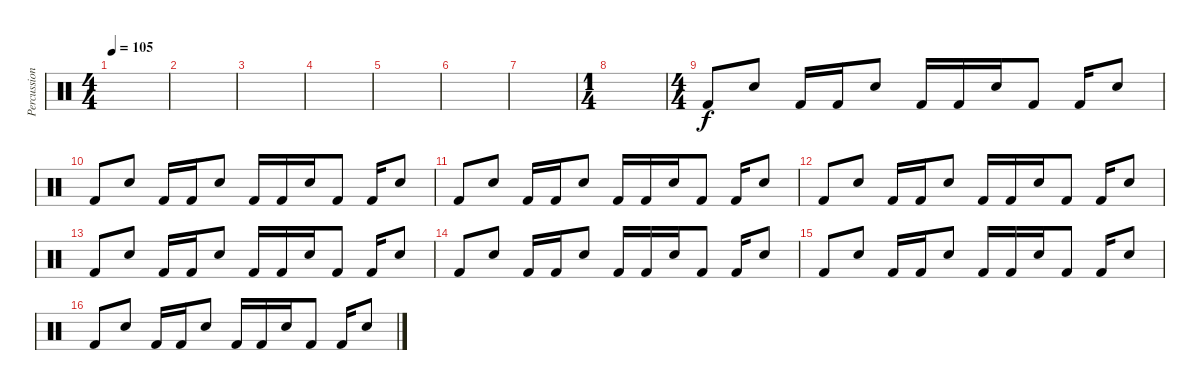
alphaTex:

\track ("Percussions" "Percussion") {instrument percussion}
\staff {score}
\articulation defaults
\ts (4 4)
\tempo 105
\clef neutral
\ks c
|
|
|
|
|
|
|
\ts (1 4)
|
\ts (4 4)
"Kick (hit) 2".8 "Snare (hit) 2".8 "Kick (hit) 2".16 "Kick (hit) 2".16 "Snare (hit) 2".8 "Kick (hit) 2".16 "Kick (hit) 2".16 "Snare (hit) 2".16 "Kick (hit) 2".8 "Kick (hit) 2".16 "Snare (hit) 2".8 |
"Kick (hit) 2".8 "Snare (hit) 2".8 "Kick (hit) 2".16 "Kick (hit) 2".16 "Snare (hit) 2".8 "Kick (hit) 2".16 "Kick (hit) 2".16 "Snare (hit) 2".16 "Kick (hit) 2".8 "Kick (hit) 2".16 "Snare (hit) 2".8 |
"Kick (hit) 2".8 "Snare (hit) 2".8 "Kick (hit) 2".16 "Kick (hit) 2".16 "Snare (hit) 2".8 "Kick (hit) 2".16 "Kick (hit) 2".16 "Snare (hit) 2".16 "Kick (hit) 2".8 "Kick (hit) 2".16 "Snare (hit) 2".8 |
"Kick (hit) 2".8 "Snare (hit) 2".8 "Kick (hit) 2".16 "Kick (hit) 2".16 "Snare (hit) 2".8 "Kick (hit) 2".16 "Kick (hit) 2".16 "Snare (hit) 2".16 "Kick (hit) 2".8 "Kick (hit) 2".16 "Snare (hit) 2".8 |
"Kick (hit) 2".8 "Snare (hit) 2".8 "Kick (hit) 2".16 "Kick (hit) 2".16 "Snare (hit) 2".8 "Kick (hit) 2".16 "Kick (hit) 2".16 "Snare (hit) 2".16 "Kick (hit) 2".8 "Kick (hit) 2".16 "Snare (hit) 2".8 |
"Kick (hit) 2".8 "Snare (hit) 2".8 "Kick (hit) 2".16 "Kick (hit) 2".16 "Snare (hit) 2".8 "Kick (hit) 2".16 "Kick (hit) 2".16 "Snare (hit) 2".16 "Kick (hit) 2".8 "Kick (hit) 2".16 "Snare (hit) 2".8 |
"Kick (hit) 2".8 "Snare (hit) 2".8 "Kick (hit) 2".16 "Kick (hit) 2".16 "Snare (hit) 2".8 "Kick (hit) 2".16 "Kick (hit) 2".16 "Snare (hit) 2".16 "Kick (hit) 2".8 "Kick (hit) 2".16 "Snare (hit) 2".8 |
"Kick (hit) 2".8 "Snare (hit) 2".8 "Kick (hit) 2".16 "Kick (hit) 2".16 "Snare (hit) 2".8 "Kick (hit) 2".16 "Kick (hit) 2".16 "Snare (hit) 2".16 "Kick (hit) 2".8 "Kick (hit) 2".16 "Snare (hit) 2".8
